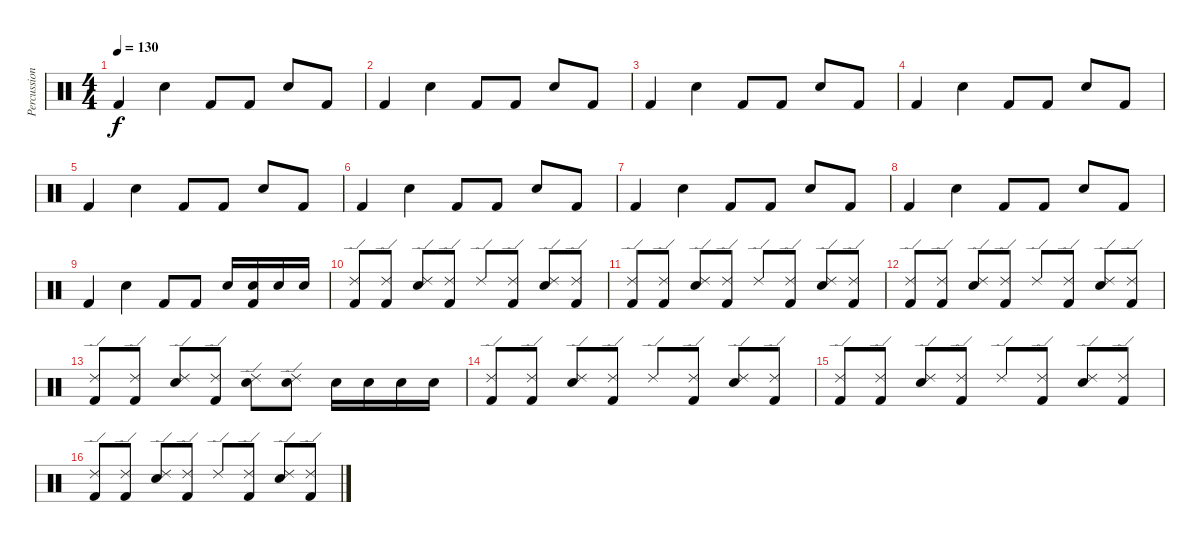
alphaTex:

\track ("Percussion" "Percussion") {instrument percussion}
\staff {score}
\articulation defaults
\ts (4 4)
\tempo 130
\clef neutral
\ks c "Kick (hit) 2".4{dy f} "Snare (hit) 2".4 "Kick (hit) 2".8 "Kick (hit) 2".8 "Snare (hit) 2".8 "Kick (hit) 2".8
|
"Kick (hit) 2".4 "Snare (hit) 2".4 "Kick (hit) 2".8 "Kick (hit) 2".8 "Snare (hit) 2".8 "Kick (hit) 2".8 |
"Kick (hit) 2".4 "Snare (hit) 2".4 "Kick (hit) 2".8 "Kick (hit) 2".8 "Snare (hit) 2".8 "Kick (hit) 2".8 |
"Kick (hit) 2".4 "Snare (hit) 2".4 "Kick (hit) 2".8 "Kick (hit) 2".8 "Snare (hit) 2".8 "Kick (hit) 2".8 |
"Kick (hit) 2".4 "Snare (hit) 2".4 "Kick (hit) 2".8 "Kick (hit) 2".8 "Snare (hit) 2".8 "Kick (hit) 2".8 |
"Kick (hit) 2".4 "Snare (hit) 2".4 "Kick (hit) 2".8 "Kick (hit) 2".8 "Snare (hit) 2".8 "Kick (hit) 2".8 |
"Kick (hit) 2".4 "Snare (hit) 2".4 "Kick (hit) 2".8 "Kick (hit) 2".8 "Snare (hit) 2".8 "Kick (hit) 2".8 |
"Kick (hit) 2".4 "Snare (hit) 2".4 "Kick (hit) 2".8 "Kick (hit) 2".8 "Snare (hit) 2".8 "Kick (hit) 2".8 |
"Kick (hit) 2".4 "Snare (hit) 2".4 "Kick (hit) 2".8 "Kick (hit) 2".8 "Snare (hit) 2".16 ("Kick (hit) 2" "Snare (hit) 2").16 "Snare (hit) 2".16 "Snare (hit) 2".16 |
("Kick (hit) 2" "Ride (edge) 2").8 ("Kick (hit) 2" "Ride (edge) 2").8 ("Snare (hit) 2" "Ride (edge) 2").8 ("Kick (hit) 2" "Ride (edge) 2").8 "Ride (edge) 2".8 ("Kick (hit) 2" "Ride (edge) 2").8 ("Snare (hit) 2" "Ride (edge) 2").8 ("Kick (hit) 2" "Ride (edge) 2").8 |
("Kick (hit) 2" "Ride (edge) 2").8 ("Kick (hit) 2" "Ride (edge) 2").8 ("Snare (hit) 2" "Ride (edge) 2").8 ("Kick (hit) 2" "Ride (edge) 2").8 "Ride (edge) 2".8 ("Kick (hit) 2" "Ride (edge) 2").8 ("Snare (hit) 2" "Ride (edge) 2").8 ("Kick (hit) 2" "Ride (edge) 2").8 |
("Kick (hit) 2" "Ride (edge) 2").8 ("Kick (hit) 2" "Ride (edge) 2").8 ("Snare (hit) 2" "Ride (edge) 2").8 ("Kick (hit) 2" "Ride (edge) 2").8 "Ride (edge) 2".8 ("Kick (hit) 2" "Ride (edge) 2").8 ("Snare (hit) 2" "Ride (edge) 2").8 ("Kick (hit) 2" "Ride (edge) 2").8 |
("Kick (hit) 2" "Ride (edge) 2").8 ("Kick (hit) 2" "Ride (edge) 2").8 ("Snare (hit) 2" "Ride (edge) 2").8 ("Kick (hit) 2" "Ride (edge) 2").8 ("Snare (hit) 2" "Ride (edge) 2").8 ("Snare (hit) 2" "Ride (edge) 2").8 "Snare (hit) 2".16 "Snare (hit) 2".16 "Snare (hit) 2".16 "Snare (hit) 2".16 |
("Kick (hit) 2" "Ride (edge) 2").8 ("Kick (hit) 2" "Ride (edge) 2").8 ("Snare (hit) 2" "Ride (edge) 2").8 ("Kick (hit) 2" "Ride (edge) 2").8 "Ride (edge) 2".8 ("Kick (hit) 2" "Ride (edge) 2").8 ("Snare (hit) 2" "Ride (edge) 2").8 ("Kick (hit) 2" "Ride (edge) 2").8 |
("Kick (hit) 2" "Ride (edge) 2").8 ("Kick (hit) 2" "Ride (edge) 2").8 ("Snare (hit) 2" "Ride (edge) 2").8 ("Kick (hit) 2" "Ride (edge) 2").8 "Ride (edge) 2".8 ("Kick (hit) 2" "Ride (edge) 2").8 ("Snare (hit) 2" "Ride (edge) 2").8 ("Kick (hit) 2" "Ride (edge) 2").8 |
("Kick (hit) 2" "Ride (edge) 2").8 ("Kick (hit) 2" "Ride (edge) 2").8 ("Snare (hit) 2" "Ride (edge) 2").8 ("Kick (hit) 2" "Ride (edge) 2").8 "Ride (edge) 2".8 ("Kick (hit) 2" "Ride (edge) 2").8 ("Snare (hit) 2" "Ride (edge) 2").8 ("Kick (hit) 2" "Ride (edge) 2").8
